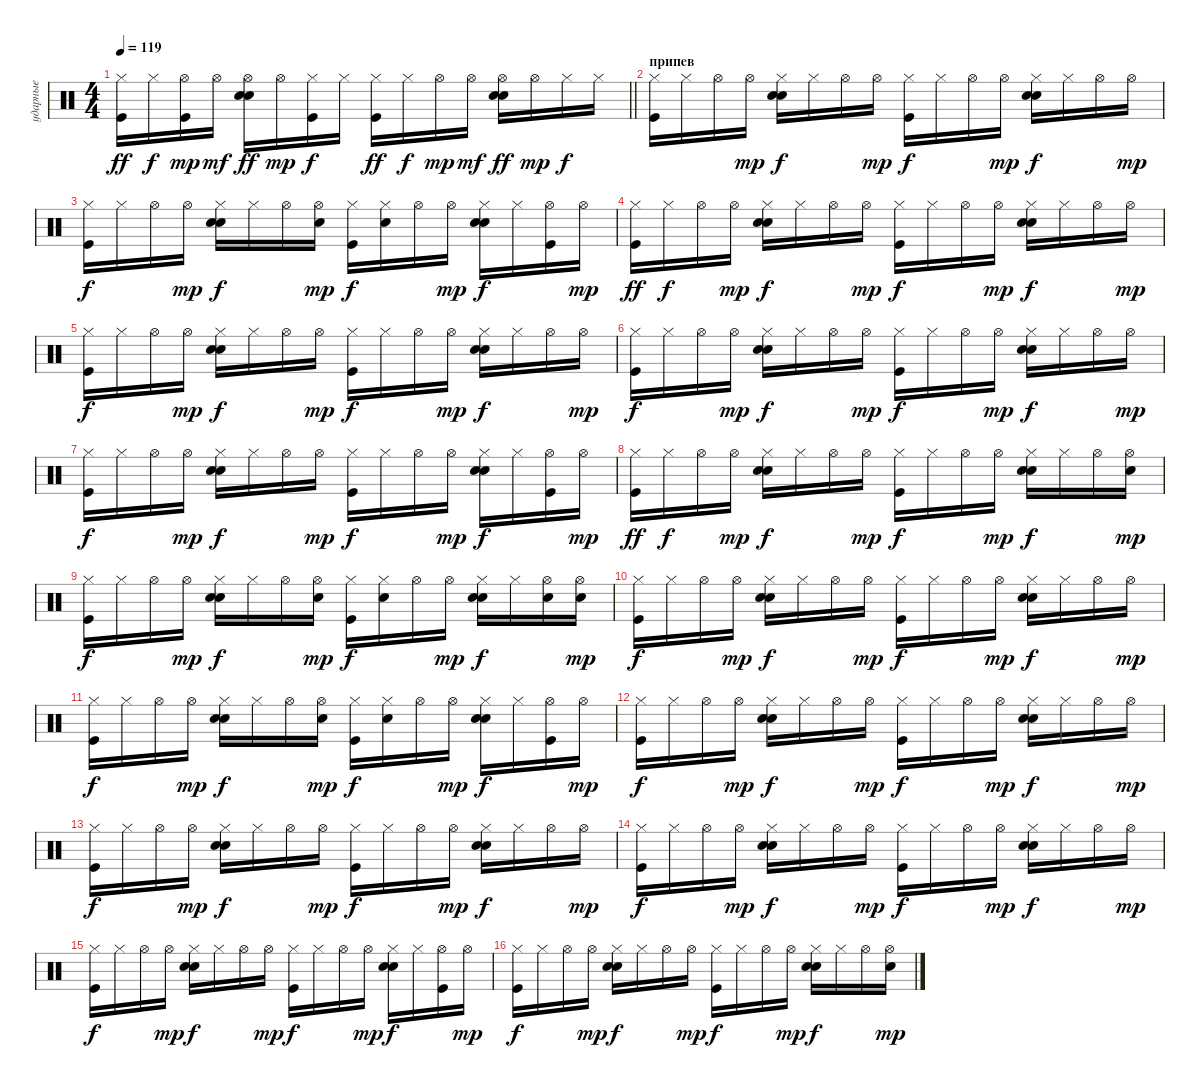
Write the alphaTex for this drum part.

\track ("ударные" "ударные") {instrument percussion}
\staff {score}
\articulation defaults
\ts (4 4)
\tempo 119
\clef neutral
\barLineRight lightlight
\ks c
("Kick (hit)" "Hi-Hat (closed)").16{dy ff} "Hi-Hat (closed)".16{dy f} ("Kick (hit)" "Hi-Hat (open)").16{dy mp} "Hi-Hat (open)".16{dy mf} ("Electric Snare (hit)" "Hi-Hat (open)" "Hand Clap (hit)").16{dy ff} "Hi-Hat (open)".16{dy mp} ("Kick (hit)" "Hi-Hat (closed)").16{dy f} "Hi-Hat (closed)".16 ("Kick (hit)" "Hi-Hat (closed)").16{dy ff} "Hi-Hat (closed)".16{dy f} "Hi-Hat (open)".16{dy mp} "Hi-Hat (open)".16{dy mf} ("Electric Snare (hit)" "Hi-Hat (open)" "Hand Clap (hit)").16{dy ff} "Hi-Hat (open)".16{dy mp} "Hi-Hat (closed)".16{dy f} "Hi-Hat (closed)".16 |
\section ("" "припев")
("Hi-Hat (closed)" "Kick (hit)").16 "Hi-Hat (closed)".16 "Hi-Hat (open)".16 "Hi-Hat (open)".16{dy mp} ("Hi-Hat (closed)" "Electric Snare (hit)" "Hand Clap (hit)").16{dy f} "Hi-Hat (closed)".16 "Hi-Hat (open)".16 "Hi-Hat (open)".16{dy mp} ("Kick (hit)" "Hi-Hat (closed)").16{dy f} "Hi-Hat (closed)".16 "Hi-Hat (open)".16 "Hi-Hat (open)".16{dy mp} ("Hi-Hat (closed)" "Electric Snare (hit)" "Hand Clap (hit)").16{dy f} "Hi-Hat (closed)".16 "Hi-Hat (open)".16 "Hi-Hat (open)".16{dy mp} |
("Hi-Hat (closed)" "Kick (hit)").16{dy f} "Hi-Hat (closed)".16 "Hi-Hat (open)".16 "Hi-Hat (open)".16{dy mp} ("Hi-Hat (closed)" "Electric Snare (hit)" "Hand Clap (hit)").16{dy f} "Hi-Hat (closed)".16 "Hi-Hat (open)".16 ("Electric Snare (hit)" "Hi-Hat (open)").16{dy mp} ("Kick (hit)" "Hi-Hat (closed)").16{dy f} ("Electric Snare (hit)" "Hi-Hat (closed)").16 "Hi-Hat (open)".16 "Hi-Hat (open)".16{dy mp} ("Hi-Hat (closed)" "Electric Snare (hit)" "Hand Clap (hit)").16{dy f} "Hi-Hat (closed)".16 ("Kick (hit)" "Hi-Hat (open)").16 "Hi-Hat (open)".16{dy mp} |
("Hi-Hat (closed)" "Kick (hit)").16{dy ff} "Hi-Hat (closed)".16{dy f} "Hi-Hat (open)".16 "Hi-Hat (open)".16{dy mp} ("Hi-Hat (closed)" "Electric Snare (hit)" "Hand Clap (hit)").16{dy f} "Hi-Hat (closed)".16 "Hi-Hat (open)".16 "Hi-Hat (open)".16{dy mp} ("Kick (hit)" "Hi-Hat (closed)").16{dy f} "Hi-Hat (closed)".16 "Hi-Hat (open)".16 "Hi-Hat (open)".16{dy mp} ("Hi-Hat (closed)" "Electric Snare (hit)" "Hand Clap (hit)").16{dy f} "Hi-Hat (closed)".16 "Hi-Hat (open)".16 "Hi-Hat (open)".16{dy mp} |
("Hi-Hat (closed)" "Kick (hit)").16{dy f} "Hi-Hat (closed)".16 "Hi-Hat (open)".16 "Hi-Hat (open)".16{dy mp} ("Hi-Hat (closed)" "Electric Snare (hit)" "Hand Clap (hit)").16{dy f} "Hi-Hat (closed)".16 "Hi-Hat (open)".16 "Hi-Hat (open)".16{dy mp} ("Kick (hit)" "Hi-Hat (closed)").16{dy f} "Hi-Hat (closed)".16 "Hi-Hat (open)".16 "Hi-Hat (open)".16{dy mp} ("Hi-Hat (closed)" "Electric Snare (hit)" "Hand Clap (hit)").16{dy f} "Hi-Hat (closed)".16 "Hi-Hat (open)".16 "Hi-Hat (open)".16{dy mp} |
("Hi-Hat (closed)" "Kick (hit)").16{dy f} "Hi-Hat (closed)".16 "Hi-Hat (open)".16 "Hi-Hat (open)".16{dy mp} ("Hi-Hat (closed)" "Electric Snare (hit)" "Hand Clap (hit)").16{dy f} "Hi-Hat (closed)".16 "Hi-Hat (open)".16 "Hi-Hat (open)".16{dy mp} ("Kick (hit)" "Hi-Hat (closed)").16{dy f} "Hi-Hat (closed)".16 "Hi-Hat (open)".16 "Hi-Hat (open)".16{dy mp} ("Hi-Hat (closed)" "Electric Snare (hit)" "Hand Clap (hit)").16{dy f} "Hi-Hat (closed)".16 "Hi-Hat (open)".16 "Hi-Hat (open)".16{dy mp} |
("Hi-Hat (closed)" "Kick (hit)").16{dy f} "Hi-Hat (closed)".16 "Hi-Hat (open)".16 "Hi-Hat (open)".16{dy mp} ("Electric Snare (hit)" "Hi-Hat (closed)" "Hand Clap (hit)").16{dy f} "Hi-Hat (closed)".16 "Hi-Hat (open)".16 "Hi-Hat (open)".16{dy mp} ("Kick (hit)" "Hi-Hat (closed)").16{dy f} "Hi-Hat (closed)".16 "Hi-Hat (open)".16 "Hi-Hat (open)".16{dy mp} ("Hi-Hat (closed)" "Electric Snare (hit)" "Hand Clap (hit)").16{dy f} "Hi-Hat (closed)".16 ("Kick (hit)" "Hi-Hat (open)").16 "Hi-Hat (open)".16{dy mp} |
("Hi-Hat (closed)" "Kick (hit)").16{dy ff} "Hi-Hat (closed)".16{dy f} "Hi-Hat (open)".16 "Hi-Hat (open)".16{dy mp} ("Hi-Hat (closed)" "Electric Snare (hit)" "Hand Clap (hit)").16{dy f} "Hi-Hat (closed)".16 "Hi-Hat (open)".16 "Hi-Hat (open)".16{dy mp} ("Kick (hit)" "Hi-Hat (closed)").16{dy f} "Hi-Hat (closed)".16 "Hi-Hat (open)".16 "Hi-Hat (open)".16{dy mp} ("Hi-Hat (closed)" "Electric Snare (hit)" "Hand Clap (hit)").16{dy f} "Hi-Hat (closed)".16 "Hi-Hat (open)".16 ("Electric Snare (hit)" "Hi-Hat (open)").16{dy mp} |
("Hi-Hat (closed)" "Kick (hit)").16{dy f} "Hi-Hat (closed)".16 "Hi-Hat (open)".16 "Hi-Hat (open)".16{dy mp} ("Hi-Hat (closed)" "Electric Snare (hit)" "Hand Clap (hit)").16{dy f} "Hi-Hat (closed)".16 "Hi-Hat (open)".16 ("Electric Snare (hit)" "Hi-Hat (open)").16{dy mp} ("Kick (hit)" "Hi-Hat (closed)").16{dy f} ("Electric Snare (hit)" "Hi-Hat (closed)").16 "Hi-Hat (open)".16 "Hi-Hat (open)".16{dy mp} ("Hi-Hat (closed)" "Electric Snare (hit)" "Hand Clap (hit)").16{dy f} "Hi-Hat (closed)".16 ("Electric Snare (hit)" "Hi-Hat (open)").16 ("Electric Snare (hit)" "Hi-Hat (open)").16{dy mp} |
("Hi-Hat (closed)" "Kick (hit)").16{dy f} "Hi-Hat (closed)".16 "Hi-Hat (open)".16 "Hi-Hat (open)".16{dy mp} ("Hi-Hat (closed)" "Electric Snare (hit)" "Hand Clap (hit)").16{dy f} "Hi-Hat (closed)".16 "Hi-Hat (open)".16 "Hi-Hat (open)".16{dy mp} ("Kick (hit)" "Hi-Hat (closed)").16{dy f} "Hi-Hat (closed)".16 "Hi-Hat (open)".16 "Hi-Hat (open)".16{dy mp} ("Hi-Hat (closed)" "Electric Snare (hit)" "Hand Clap (hit)").16{dy f} "Hi-Hat (closed)".16 "Hi-Hat (open)".16 "Hi-Hat (open)".16{dy mp} |
("Hi-Hat (closed)" "Kick (hit)").16{dy f} "Hi-Hat (closed)".16 "Hi-Hat (open)".16 "Hi-Hat (open)".16{dy mp} ("Hi-Hat (closed)" "Electric Snare (hit)" "Hand Clap (hit)").16{dy f} "Hi-Hat (closed)".16 "Hi-Hat (open)".16 ("Electric Snare (hit)" "Hi-Hat (open)").16{dy mp} ("Kick (hit)" "Hi-Hat (closed)").16{dy f} ("Electric Snare (hit)" "Hi-Hat (closed)").16 "Hi-Hat (open)".16 "Hi-Hat (open)".16{dy mp} ("Hi-Hat (closed)" "Electric Snare (hit)" "Hand Clap (hit)").16{dy f} "Hi-Hat (closed)".16 ("Kick (hit)" "Hi-Hat (open)").16 "Hi-Hat (open)".16{dy mp} |
("Hi-Hat (closed)" "Kick (hit)").16{dy f} "Hi-Hat (closed)".16 "Hi-Hat (open)".16 "Hi-Hat (open)".16{dy mp} ("Hi-Hat (closed)" "Electric Snare (hit)" "Hand Clap (hit)").16{dy f} "Hi-Hat (closed)".16 "Hi-Hat (open)".16 "Hi-Hat (open)".16{dy mp} ("Kick (hit)" "Hi-Hat (closed)").16{dy f} "Hi-Hat (closed)".16 "Hi-Hat (open)".16 "Hi-Hat (open)".16{dy mp} ("Hi-Hat (closed)" "Electric Snare (hit)" "Hand Clap (hit)").16{dy f} "Hi-Hat (closed)".16 "Hi-Hat (open)".16 "Hi-Hat (open)".16{dy mp} |
("Hi-Hat (closed)" "Kick (hit)").16{dy f} "Hi-Hat (closed)".16 "Hi-Hat (open)".16 "Hi-Hat (open)".16{dy mp} ("Hi-Hat (closed)" "Electric Snare (hit)" "Hand Clap (hit)").16{dy f} "Hi-Hat (closed)".16 "Hi-Hat (open)".16 "Hi-Hat (open)".16{dy mp} ("Kick (hit)" "Hi-Hat (closed)").16{dy f} "Hi-Hat (closed)".16 "Hi-Hat (open)".16 "Hi-Hat (open)".16{dy mp} ("Hi-Hat (closed)" "Electric Snare (hit)" "Hand Clap (hit)").16{dy f} "Hi-Hat (closed)".16 "Hi-Hat (open)".16 "Hi-Hat (open)".16{dy mp} |
("Hi-Hat (closed)" "Kick (hit)").16{dy f} "Hi-Hat (closed)".16 "Hi-Hat (open)".16 "Hi-Hat (open)".16{dy mp} ("Hi-Hat (closed)" "Electric Snare (hit)" "Hand Clap (hit)").16{dy f} "Hi-Hat (closed)".16 "Hi-Hat (open)".16 "Hi-Hat (open)".16{dy mp} ("Kick (hit)" "Hi-Hat (closed)").16{dy f} "Hi-Hat (closed)".16 "Hi-Hat (open)".16 "Hi-Hat (open)".16{dy mp} ("Hi-Hat (closed)" "Electric Snare (hit)" "Hand Clap (hit)").16{dy f} "Hi-Hat (closed)".16 "Hi-Hat (open)".16 "Hi-Hat (open)".16{dy mp} |
("Hi-Hat (closed)" "Kick (hit)").16{dy f} "Hi-Hat (closed)".16 "Hi-Hat (open)".16 "Hi-Hat (open)".16{dy mp} ("Electric Snare (hit)" "Hi-Hat (closed)" "Hand Clap (hit)").16{dy f} "Hi-Hat (closed)".16 "Hi-Hat (open)".16 "Hi-Hat (open)".16{dy mp} ("Kick (hit)" "Hi-Hat (closed)").16{dy f} "Hi-Hat (closed)".16 "Hi-Hat (open)".16 "Hi-Hat (open)".16{dy mp} ("Hi-Hat (closed)" "Electric Snare (hit)" "Hand Clap (hit)").16{dy f} "Hi-Hat (closed)".16 ("Kick (hit)" "Hi-Hat (open)").16 "Hi-Hat (open)".16{dy mp} |
("Hi-Hat (closed)" "Kick (hit)").16{dy f} "Hi-Hat (closed)".16 "Hi-Hat (open)".16 "Hi-Hat (open)".16{dy mp} ("Hi-Hat (closed)" "Electric Snare (hit)" "Hand Clap (hit)").16{dy f} "Hi-Hat (closed)".16 "Hi-Hat (open)".16 "Hi-Hat (open)".16{dy mp} ("Kick (hit)" "Hi-Hat (closed)").16{dy f} "Hi-Hat (closed)".16 "Hi-Hat (open)".16 "Hi-Hat (open)".16{dy mp} ("Hi-Hat (closed)" "Electric Snare (hit)" "Hand Clap (hit)").16{dy f} "Hi-Hat (closed)".16 "Hi-Hat (open)".16 ("Electric Snare (hit)" "Hi-Hat (open)").16{dy mp}
